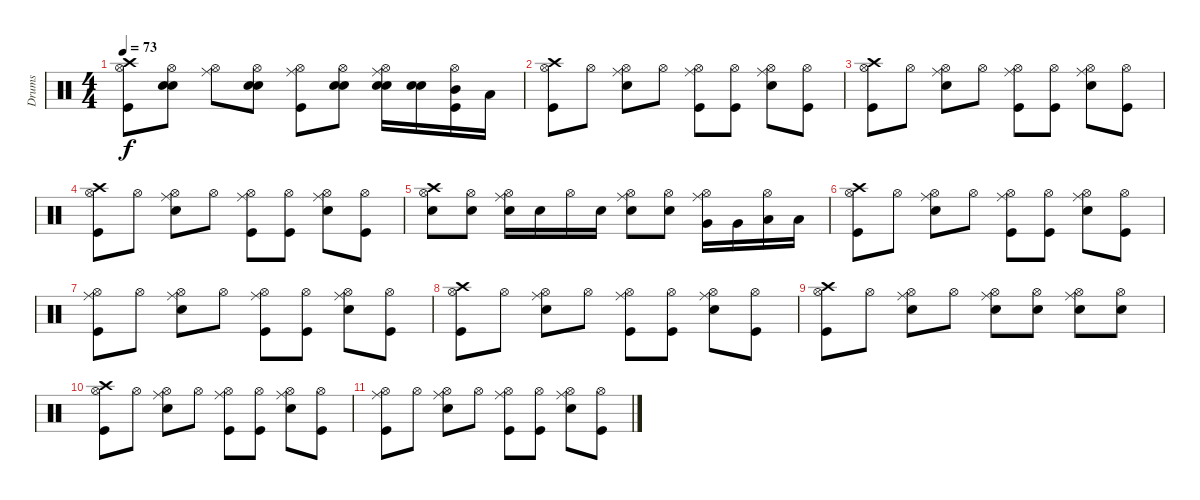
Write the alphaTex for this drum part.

\track ("Drums" "Drums") {instrument percussion}
\staff {score}
\articulation defaults
\ts (4 4)
\tempo 73
\clef neutral
\ks c
("Kick (hit)" "Hi-Hat (open)" "Crash high (hit)").8{dy f} ("Snare (hit) 2" "Hi-Hat (open)" "Snare (hit) 2").8 ("Hi-Hat (open)" "Ride (middle)").8 ("Snare (hit) 2" "Hi-Hat (open)" "Snare (hit) 2").8 ("Kick (hit)" "Hi-Hat (open)" "Ride (middle)").8 ("Snare (hit) 2" "Hi-Hat (open)" "Snare (hit) 2").8 ("Snare (hit) 2" "Hi-Hat (open)" "Snare (hit) 2" "Ride (middle)").16 ("Snare (hit) 2" "Snare (hit) 2").16 ("Kick (hit)" "Mid Tom (hit)" "Hi-Hat (open)").16 "Low Tom (hit)".16 |
("Kick (hit)" "Hi-Hat (open)" "Crash high (hit)").8 "Hi-Hat (open)".8 ("Snare (hit) 2" "Hi-Hat (open)" "Ride (middle)").8 "Hi-Hat (open)".8 ("Kick (hit)" "Hi-Hat (open)" "Ride (middle)").8 ("Kick (hit)" "Hi-Hat (open)").8 ("Snare (hit) 2" "Hi-Hat (open)" "Ride (middle)").8 ("Kick (hit)" "Hi-Hat (open)").8 |
("Kick (hit)" "Hi-Hat (open)" "Crash high (hit)").8 "Hi-Hat (open)".8 ("Snare (hit) 2" "Hi-Hat (open)" "Ride (middle)").8 "Hi-Hat (open)".8 ("Kick (hit)" "Hi-Hat (open)" "Ride (middle)").8 ("Kick (hit)" "Hi-Hat (open)").8 ("Snare (hit) 2" "Hi-Hat (open)" "Ride (middle)").8 ("Kick (hit)" "Hi-Hat (open)").8 |
("Kick (hit)" "Hi-Hat (open)" "Crash high (hit)").8 "Hi-Hat (open)".8 ("Snare (hit) 2" "Hi-Hat (open)" "Ride (middle)").8 "Hi-Hat (open)".8 ("Kick (hit)" "Hi-Hat (open)" "Ride (middle)").8 ("Kick (hit)" "Hi-Hat (open)").8 ("Snare (hit) 2" "Hi-Hat (open)" "Ride (middle)").8 ("Kick (hit)" "Hi-Hat (open)").8 |
("Snare (hit) 2" "Hi-Hat (open)" "Crash high (hit)").8 ("Snare (hit) 2" "Hi-Hat (open)").8 ("Snare (hit) 2" "Hi-Hat (open)" "Ride (middle)").16 "Snare (hit) 2".16 "Hi-Hat (open)".16 "Snare (hit) 2".16 ("Snare (hit) 2" "Hi-Hat (open)" "Ride (middle)").8 ("Snare (hit) 2" "Hi-Hat (open)").8 ("Very Low Tom (hit)" "Hi-Hat (open)" "Ride (middle)").16 "Very Low Tom (hit)".16 ("Low Floor Tom (hit)" "Hi-Hat (open)").16 "Low Floor Tom (hit)".16 |
("Kick (hit)" "Hi-Hat (open)" "Crash high (hit)").8 "Hi-Hat (open)".8 ("Snare (hit) 2" "Hi-Hat (open)" "Ride (middle)").8 "Hi-Hat (open)".8 ("Kick (hit)" "Hi-Hat (open)" "Ride (middle)").8 ("Kick (hit)" "Hi-Hat (open)").8 ("Snare (hit) 2" "Hi-Hat (open)" "Ride (middle)").8 ("Kick (hit)" "Hi-Hat (open)").8 |
("Kick (hit)" "Hi-Hat (open)" "Ride (middle)").8 "Hi-Hat (open)".8 ("Snare (hit) 2" "Hi-Hat (open)" "Ride (middle)").8 "Hi-Hat (open)".8 ("Kick (hit)" "Hi-Hat (open)" "Ride (middle)").8 ("Kick (hit)" "Hi-Hat (open)").8 ("Snare (hit) 2" "Hi-Hat (open)" "Ride (middle)").8 ("Kick (hit)" "Hi-Hat (open)").8 |
("Kick (hit)" "Hi-Hat (open)" "Crash high (hit)").8 "Hi-Hat (open)".8 ("Snare (hit) 2" "Hi-Hat (open)" "Ride (middle)").8 "Hi-Hat (open)".8 ("Kick (hit)" "Hi-Hat (open)" "Ride (middle)").8 ("Kick (hit)" "Hi-Hat (open)").8 ("Snare (hit) 2" "Hi-Hat (open)" "Ride (middle)").8 ("Kick (hit)" "Hi-Hat (open)").8 |
("Kick (hit)" "Hi-Hat (open)" "Crash high (hit)").8 "Hi-Hat (open)".8 ("Snare (hit) 2" "Hi-Hat (open)" "Ride (middle)").8 "Hi-Hat (open)".8 ("Snare (hit) 2" "Hi-Hat (open)" "Ride (middle)").8 ("Snare (hit) 2" "Hi-Hat (open)").8 ("Snare (hit) 2" "Hi-Hat (open)" "Ride (middle)").8 ("Snare (hit) 2" "Hi-Hat (open)").8 |
("Kick (hit)" "Hi-Hat (open)" "Crash high (hit)").8 "Hi-Hat (open)".8 ("Snare (hit) 2" "Hi-Hat (open)" "Ride (middle)").8 "Hi-Hat (open)".8 ("Kick (hit)" "Hi-Hat (open)" "Ride (middle)").8 ("Kick (hit)" "Hi-Hat (open)").8 ("Snare (hit) 2" "Hi-Hat (open)" "Ride (middle)").8 ("Kick (hit)" "Hi-Hat (open)").8 |
("Kick (hit)" "Hi-Hat (open)" "Ride (middle)").8 "Hi-Hat (open)".8 ("Snare (hit) 2" "Hi-Hat (open)" "Ride (middle)").8 "Hi-Hat (open)".8 ("Kick (hit)" "Hi-Hat (open)" "Ride (middle)").8 ("Kick (hit)" "Hi-Hat (open)").8 ("Snare (hit) 2" "Hi-Hat (open)" "Ride (middle)").8 ("Kick (hit)" "Hi-Hat (open)").8
